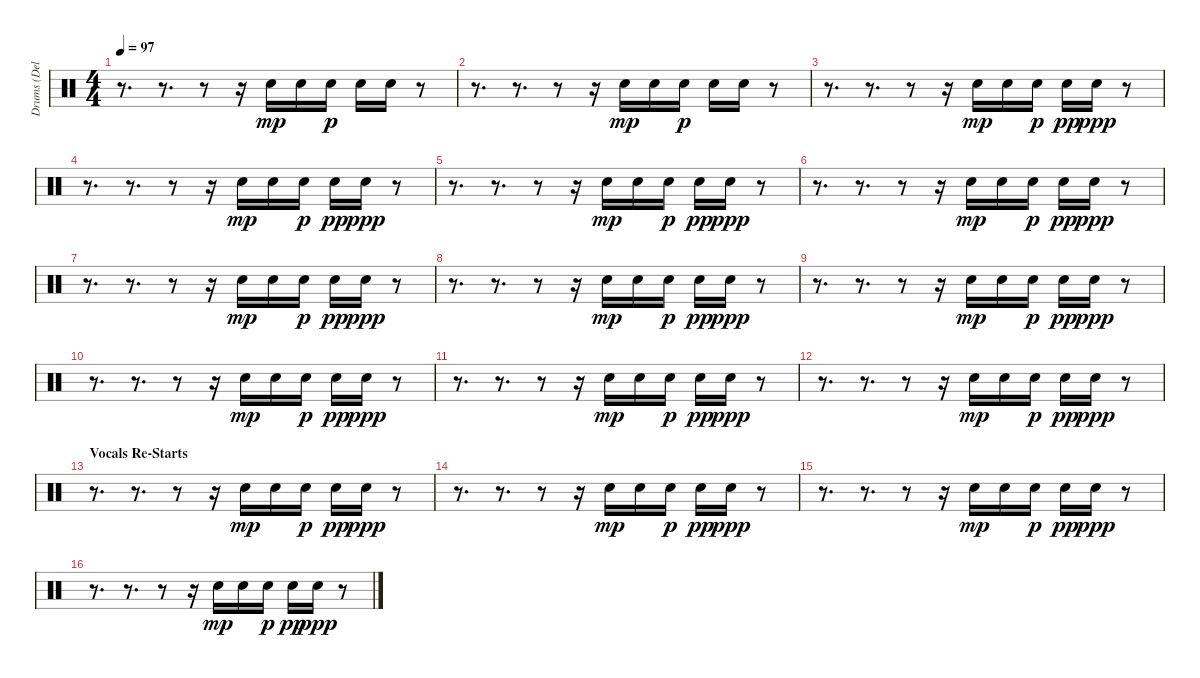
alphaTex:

\track ("Drums (Delay)" "Drums (Del") {instrument percussion}
\staff {score}
\articulation defaults
\ts (4 4)
\tempo 97
\clef neutral
\ks c
r.8{d dy mp} r.8{d} r.8 r.16 "Electric Snare (hit)".16 "Electric Snare (hit)".16 "Electric Snare (hit)".16{dy p} "Electric Snare (hit)".16 "Electric Snare (hit)".16 r.8 |
r.8{d} r.8{d} r.8 r.16 "Electric Snare (hit)".16{dy mp} "Electric Snare (hit)".16 "Electric Snare (hit)".16{dy p} "Electric Snare (hit)".16 "Electric Snare (hit)".16 r.8 |
r.8{d} r.8{d} r.8 r.16 "Electric Snare (hit)".16{dy mp} "Electric Snare (hit)".16 "Electric Snare (hit)".16{dy p} "Electric Snare (hit)".16{dy pp} "Electric Snare (hit)".16{dy ppp} r.8 |
r.8{d} r.8{d} r.8 r.16 "Electric Snare (hit)".16{dy mp} "Electric Snare (hit)".16 "Electric Snare (hit)".16{dy p} "Electric Snare (hit)".16{dy pp} "Electric Snare (hit)".16{dy ppp} r.8 |
r.8{d} r.8{d} r.8 r.16 "Electric Snare (hit)".16{dy mp} "Electric Snare (hit)".16 "Electric Snare (hit)".16{dy p} "Electric Snare (hit)".16{dy pp} "Electric Snare (hit)".16{dy ppp} r.8 |
r.8{d} r.8{d} r.8 r.16 "Electric Snare (hit)".16{dy mp} "Electric Snare (hit)".16 "Electric Snare (hit)".16{dy p} "Electric Snare (hit)".16{dy pp} "Electric Snare (hit)".16{dy ppp} r.8 |
r.8{d} r.8{d} r.8 r.16 "Electric Snare (hit)".16{dy mp} "Electric Snare (hit)".16 "Electric Snare (hit)".16{dy p} "Electric Snare (hit)".16{dy pp} "Electric Snare (hit)".16{dy ppp} r.8 |
r.8{d} r.8{d} r.8 r.16 "Electric Snare (hit)".16{dy mp} "Electric Snare (hit)".16 "Electric Snare (hit)".16{dy p} "Electric Snare (hit)".16{dy pp} "Electric Snare (hit)".16{dy ppp} r.8 |
r.8{d} r.8{d} r.8 r.16 "Electric Snare (hit)".16{dy mp} "Electric Snare (hit)".16 "Electric Snare (hit)".16{dy p} "Electric Snare (hit)".16{dy pp} "Electric Snare (hit)".16{dy ppp} r.8 |
r.8{d} r.8{d} r.8 r.16 "Electric Snare (hit)".16{dy mp} "Electric Snare (hit)".16 "Electric Snare (hit)".16{dy p} "Electric Snare (hit)".16{dy pp} "Electric Snare (hit)".16{dy ppp} r.8 |
r.8{d} r.8{d} r.8 r.16 "Electric Snare (hit)".16{dy mp} "Electric Snare (hit)".16 "Electric Snare (hit)".16{dy p} "Electric Snare (hit)".16{dy pp} "Electric Snare (hit)".16{dy ppp} r.8 |
r.8{d} r.8{d} r.8 r.16 "Electric Snare (hit)".16{dy mp} "Electric Snare (hit)".16 "Electric Snare (hit)".16{dy p} "Electric Snare (hit)".16{dy pp} "Electric Snare (hit)".16{dy ppp} r.8 |
\section ("" "Vocals Re-Starts")
r.8{d} r.8{d} r.8 r.16 "Electric Snare (hit)".16{dy mp} "Electric Snare (hit)".16 "Electric Snare (hit)".16{dy p} "Electric Snare (hit)".16{dy pp} "Electric Snare (hit)".16{dy ppp} r.8 |
r.8{d} r.8{d} r.8 r.16 "Electric Snare (hit)".16{dy mp} "Electric Snare (hit)".16 "Electric Snare (hit)".16{dy p} "Electric Snare (hit)".16{dy pp} "Electric Snare (hit)".16{dy ppp} r.8 |
r.8{d} r.8{d} r.8 r.16 "Electric Snare (hit)".16{dy mp} "Electric Snare (hit)".16 "Electric Snare (hit)".16{dy p} "Electric Snare (hit)".16{dy pp} "Electric Snare (hit)".16{dy ppp} r.8 |
r.8{d} r.8{d} r.8 r.16 "Electric Snare (hit)".16{dy mp} "Electric Snare (hit)".16 "Electric Snare (hit)".16{dy p} "Electric Snare (hit)".16{dy pp} "Electric Snare (hit)".16{dy ppp} r.8
